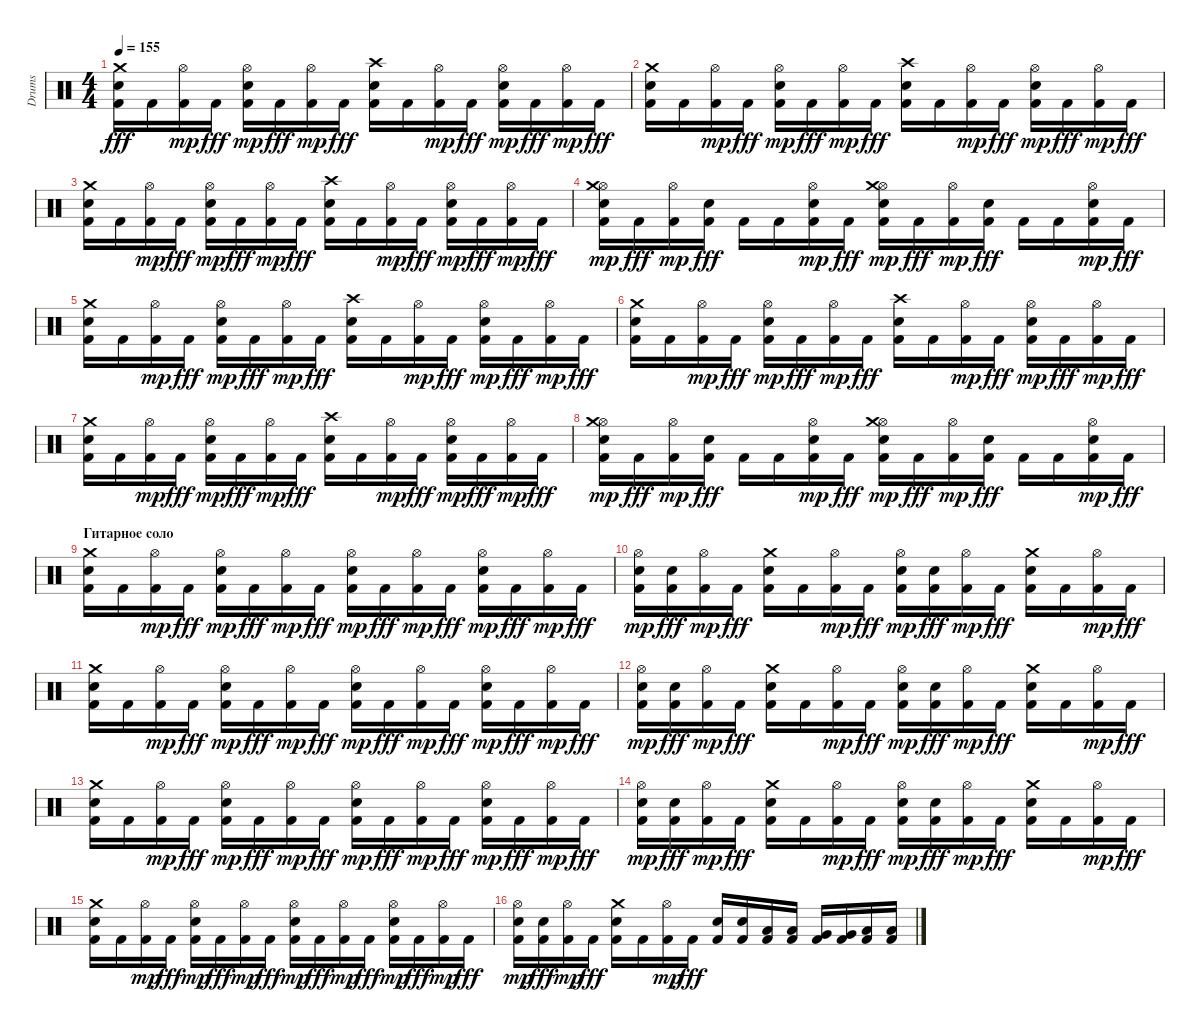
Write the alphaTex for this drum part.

\track ("Drums" "Drums") {instrument percussion}
\staff {score}
\articulation defaults
\ts (4 4)
\tempo 155
\clef neutral
\ks c
("Kick (hit) 2" "Snare (hit) 2" "Crash medium (hit)").16{dy fff} "Kick (hit) 2".16 ("Kick (hit) 2" "Hi-Hat (open)").16{dy mp} "Kick (hit) 2".16{dy fff} ("Kick (hit) 2" "Hi-Hat (open)" "Snare (hit) 2").16{dy mp} "Kick (hit) 2".16{dy fff} ("Kick (hit) 2" "Hi-Hat (open)").16{dy mp} "Kick (hit) 2".16{dy fff} ("Kick (hit) 2" "Snare (hit) 2" "Crash high (hit)").16 "Kick (hit) 2".16 ("Kick (hit) 2" "Hi-Hat (open)").16{dy mp} "Kick (hit) 2".16{dy fff} ("Kick (hit) 2" "Hi-Hat (open)" "Snare (hit) 2").16{dy mp} "Kick (hit) 2".16{dy fff} ("Kick (hit) 2" "Hi-Hat (open)").16{dy mp} "Kick (hit) 2".16{dy fff} |
("Kick (hit) 2" "Snare (hit) 2" "Crash medium (hit)").16 "Kick (hit) 2".16 ("Kick (hit) 2" "Hi-Hat (open)").16{dy mp} "Kick (hit) 2".16{dy fff} ("Kick (hit) 2" "Hi-Hat (open)" "Snare (hit) 2").16{dy mp} "Kick (hit) 2".16{dy fff} ("Kick (hit) 2" "Hi-Hat (open)").16{dy mp} "Kick (hit) 2".16{dy fff} ("Kick (hit) 2" "Snare (hit) 2" "Crash high (hit)").16 "Kick (hit) 2".16 ("Kick (hit) 2" "Hi-Hat (open)").16{dy mp} "Kick (hit) 2".16{dy fff} ("Kick (hit) 2" "Hi-Hat (open)" "Snare (hit) 2").16{dy mp} "Kick (hit) 2".16{dy fff} ("Kick (hit) 2" "Hi-Hat (open)").16{dy mp} "Kick (hit) 2".16{dy fff} |
("Kick (hit) 2" "Snare (hit) 2" "Crash medium (hit)").16 "Kick (hit) 2".16 ("Kick (hit) 2" "Hi-Hat (open)").16{dy mp} "Kick (hit) 2".16{dy fff} ("Kick (hit) 2" "Hi-Hat (open)" "Snare (hit) 2").16{dy mp} "Kick (hit) 2".16{dy fff} ("Kick (hit) 2" "Hi-Hat (open)").16{dy mp} "Kick (hit) 2".16{dy fff} ("Kick (hit) 2" "Snare (hit) 2" "Crash high (hit)").16 "Kick (hit) 2".16 ("Kick (hit) 2" "Hi-Hat (open)").16{dy mp} "Kick (hit) 2".16{dy fff} ("Kick (hit) 2" "Hi-Hat (open)" "Snare (hit) 2").16{dy mp} "Kick (hit) 2".16{dy fff} ("Kick (hit) 2" "Hi-Hat (open)").16{dy mp} "Kick (hit) 2".16{dy fff} |
("Kick (hit) 2" "Hi-Hat (open)" "Snare (hit) 2" "Crash medium (hit)").16{dy mp} "Kick (hit) 2".16{dy fff} ("Kick (hit) 2" "Hi-Hat (open)").16{dy mp} ("Kick (hit) 2" "Snare (hit) 2").16{dy fff} "Kick (hit) 2".16 "Kick (hit) 2".16 ("Kick (hit) 2" "Hi-Hat (open)" "Snare (hit) 2").16{dy mp} "Kick (hit) 2".16{dy fff} ("Kick (hit) 2" "Hi-Hat (open)" "Snare (hit) 2" "Crash medium (hit)").16{dy mp} "Kick (hit) 2".16{dy fff} ("Kick (hit) 2" "Hi-Hat (open)").16{dy mp} ("Kick (hit) 2" "Snare (hit) 2").16{dy fff} "Kick (hit) 2".16 "Kick (hit) 2".16 ("Kick (hit) 2" "Hi-Hat (open)" "Snare (hit) 2").16{dy mp} "Kick (hit) 2".16{dy fff} |
("Kick (hit) 2" "Snare (hit) 2" "Crash medium (hit)").16 "Kick (hit) 2".16 ("Kick (hit) 2" "Hi-Hat (open)").16{dy mp} "Kick (hit) 2".16{dy fff} ("Kick (hit) 2" "Hi-Hat (open)" "Snare (hit) 2").16{dy mp} "Kick (hit) 2".16{dy fff} ("Kick (hit) 2" "Hi-Hat (open)").16{dy mp} "Kick (hit) 2".16{dy fff} ("Kick (hit) 2" "Snare (hit) 2" "Crash high (hit)").16 "Kick (hit) 2".16 ("Kick (hit) 2" "Hi-Hat (open)").16{dy mp} "Kick (hit) 2".16{dy fff} ("Kick (hit) 2" "Hi-Hat (open)" "Snare (hit) 2").16{dy mp} "Kick (hit) 2".16{dy fff} ("Kick (hit) 2" "Hi-Hat (open)").16{dy mp} "Kick (hit) 2".16{dy fff} |
("Kick (hit) 2" "Snare (hit) 2" "Crash medium (hit)").16 "Kick (hit) 2".16 ("Kick (hit) 2" "Hi-Hat (open)").16{dy mp} "Kick (hit) 2".16{dy fff} ("Kick (hit) 2" "Hi-Hat (open)" "Snare (hit) 2").16{dy mp} "Kick (hit) 2".16{dy fff} ("Kick (hit) 2" "Hi-Hat (open)").16{dy mp} "Kick (hit) 2".16{dy fff} ("Kick (hit) 2" "Snare (hit) 2" "Crash high (hit)").16 "Kick (hit) 2".16 ("Kick (hit) 2" "Hi-Hat (open)").16{dy mp} "Kick (hit) 2".16{dy fff} ("Kick (hit) 2" "Hi-Hat (open)" "Snare (hit) 2").16{dy mp} "Kick (hit) 2".16{dy fff} ("Kick (hit) 2" "Hi-Hat (open)").16{dy mp} "Kick (hit) 2".16{dy fff} |
("Kick (hit) 2" "Snare (hit) 2" "Crash medium (hit)").16 "Kick (hit) 2".16 ("Kick (hit) 2" "Hi-Hat (open)").16{dy mp} "Kick (hit) 2".16{dy fff} ("Kick (hit) 2" "Hi-Hat (open)" "Snare (hit) 2").16{dy mp} "Kick (hit) 2".16{dy fff} ("Kick (hit) 2" "Hi-Hat (open)").16{dy mp} "Kick (hit) 2".16{dy fff} ("Kick (hit) 2" "Snare (hit) 2" "Crash high (hit)").16 "Kick (hit) 2".16 ("Kick (hit) 2" "Hi-Hat (open)").16{dy mp} "Kick (hit) 2".16{dy fff} ("Kick (hit) 2" "Hi-Hat (open)" "Snare (hit) 2").16{dy mp} "Kick (hit) 2".16{dy fff} ("Kick (hit) 2" "Hi-Hat (open)").16{dy mp} "Kick (hit) 2".16{dy fff} |
("Kick (hit) 2" "Hi-Hat (open)" "Snare (hit) 2" "Crash medium (hit)").16{dy mp} "Kick (hit) 2".16{dy fff} ("Kick (hit) 2" "Hi-Hat (open)").16{dy mp} ("Kick (hit) 2" "Snare (hit) 2").16{dy fff} "Kick (hit) 2".16 "Kick (hit) 2".16 ("Kick (hit) 2" "Hi-Hat (open)" "Snare (hit) 2").16{dy mp} "Kick (hit) 2".16{dy fff} ("Kick (hit) 2" "Hi-Hat (open)" "Snare (hit) 2" "Crash medium (hit)").16{dy mp} "Kick (hit) 2".16{dy fff} ("Kick (hit) 2" "Hi-Hat (open)").16{dy mp} ("Kick (hit) 2" "Snare (hit) 2").16{dy fff} "Kick (hit) 2".16 "Kick (hit) 2".16 ("Kick (hit) 2" "Hi-Hat (open)" "Snare (hit) 2").16{dy mp} "Kick (hit) 2".16{dy fff} |
\section ("" "Гитарное соло")
("Kick (hit) 2" "Snare (hit) 2" "Crash medium (hit)").16 "Kick (hit) 2".16 ("Kick (hit) 2" "Hi-Hat (open)").16{dy mp} "Kick (hit) 2".16{dy fff} ("Kick (hit) 2" "Hi-Hat (open)" "Snare (hit) 2").16{dy mp} "Kick (hit) 2".16{dy fff} ("Kick (hit) 2" "Hi-Hat (open)").16{dy mp} "Kick (hit) 2".16{dy fff} ("Kick (hit) 2" "Hi-Hat (open)" "Snare (hit) 2").16{dy mp} "Kick (hit) 2".16{dy fff} ("Kick (hit) 2" "Hi-Hat (open)").16{dy mp} "Kick (hit) 2".16{dy fff} ("Kick (hit) 2" "Hi-Hat (open)" "Snare (hit) 2").16{dy mp} "Kick (hit) 2".16{dy fff} ("Kick (hit) 2" "Hi-Hat (open)").16{dy mp} "Kick (hit) 2".16{dy fff} |
("Kick (hit) 2" "Hi-Hat (open)" "Snare (hit) 2").16{dy mp} ("Kick (hit) 2" "Snare (hit) 2").16{dy fff} ("Kick (hit) 2" "Hi-Hat (open)").16{dy mp} "Kick (hit) 2".16{dy fff} ("Kick (hit) 2" "Snare (hit) 2" "Crash medium (hit)").16 "Kick (hit) 2".16 ("Kick (hit) 2" "Hi-Hat (open)").16{dy mp} "Kick (hit) 2".16{dy fff} ("Kick (hit) 2" "Hi-Hat (open)" "Snare (hit) 2").16{dy mp} ("Kick (hit) 2" "Snare (hit) 2").16{dy fff} ("Kick (hit) 2" "Hi-Hat (open)").16{dy mp} "Kick (hit) 2".16{dy fff} ("Kick (hit) 2" "Snare (hit) 2" "Crash medium (hit)").16 "Kick (hit) 2".16 ("Kick (hit) 2" "Hi-Hat (open)").16{dy mp} "Kick (hit) 2".16{dy fff} |
("Kick (hit) 2" "Snare (hit) 2" "Crash medium (hit)").16 "Kick (hit) 2".16 ("Kick (hit) 2" "Hi-Hat (open)").16{dy mp} "Kick (hit) 2".16{dy fff} ("Kick (hit) 2" "Hi-Hat (open)" "Snare (hit) 2").16{dy mp} "Kick (hit) 2".16{dy fff} ("Kick (hit) 2" "Hi-Hat (open)").16{dy mp} "Kick (hit) 2".16{dy fff} ("Kick (hit) 2" "Hi-Hat (open)" "Snare (hit) 2").16{dy mp} "Kick (hit) 2".16{dy fff} ("Kick (hit) 2" "Hi-Hat (open)").16{dy mp} "Kick (hit) 2".16{dy fff} ("Kick (hit) 2" "Hi-Hat (open)" "Snare (hit) 2").16{dy mp} "Kick (hit) 2".16{dy fff} ("Kick (hit) 2" "Hi-Hat (open)").16{dy mp} "Kick (hit) 2".16{dy fff} |
("Kick (hit) 2" "Hi-Hat (open)" "Snare (hit) 2").16{dy mp} ("Kick (hit) 2" "Snare (hit) 2").16{dy fff} ("Kick (hit) 2" "Hi-Hat (open)").16{dy mp} "Kick (hit) 2".16{dy fff} ("Kick (hit) 2" "Snare (hit) 2" "Crash medium (hit)").16 "Kick (hit) 2".16 ("Kick (hit) 2" "Hi-Hat (open)").16{dy mp} "Kick (hit) 2".16{dy fff} ("Kick (hit) 2" "Hi-Hat (open)" "Snare (hit) 2").16{dy mp} ("Kick (hit) 2" "Snare (hit) 2").16{dy fff} ("Kick (hit) 2" "Hi-Hat (open)").16{dy mp} "Kick (hit) 2".16{dy fff} ("Kick (hit) 2" "Snare (hit) 2" "Crash medium (hit)").16 "Kick (hit) 2".16 ("Kick (hit) 2" "Hi-Hat (open)").16{dy mp} "Kick (hit) 2".16{dy fff} |
("Kick (hit) 2" "Snare (hit) 2" "Crash medium (hit)").16 "Kick (hit) 2".16 ("Kick (hit) 2" "Hi-Hat (open)").16{dy mp} "Kick (hit) 2".16{dy fff} ("Kick (hit) 2" "Hi-Hat (open)" "Snare (hit) 2").16{dy mp} "Kick (hit) 2".16{dy fff} ("Kick (hit) 2" "Hi-Hat (open)").16{dy mp} "Kick (hit) 2".16{dy fff} ("Kick (hit) 2" "Hi-Hat (open)" "Snare (hit) 2").16{dy mp} "Kick (hit) 2".16{dy fff} ("Kick (hit) 2" "Hi-Hat (open)").16{dy mp} "Kick (hit) 2".16{dy fff} ("Kick (hit) 2" "Hi-Hat (open)" "Snare (hit) 2").16{dy mp} "Kick (hit) 2".16{dy fff} ("Kick (hit) 2" "Hi-Hat (open)").16{dy mp} "Kick (hit) 2".16{dy fff} |
("Kick (hit) 2" "Hi-Hat (open)" "Snare (hit) 2").16{dy mp} ("Kick (hit) 2" "Snare (hit) 2").16{dy fff} ("Kick (hit) 2" "Hi-Hat (open)").16{dy mp} "Kick (hit) 2".16{dy fff} ("Kick (hit) 2" "Snare (hit) 2" "Crash medium (hit)").16 "Kick (hit) 2".16 ("Kick (hit) 2" "Hi-Hat (open)").16{dy mp} "Kick (hit) 2".16{dy fff} ("Kick (hit) 2" "Hi-Hat (open)" "Snare (hit) 2").16{dy mp} ("Kick (hit) 2" "Snare (hit) 2").16{dy fff} ("Kick (hit) 2" "Hi-Hat (open)").16{dy mp} "Kick (hit) 2".16{dy fff} ("Kick (hit) 2" "Snare (hit) 2" "Crash medium (hit)").16 "Kick (hit) 2".16 ("Kick (hit) 2" "Hi-Hat (open)").16{dy mp} "Kick (hit) 2".16{dy fff} |
("Kick (hit) 2" "Snare (hit) 2" "Crash medium (hit)").16 "Kick (hit) 2".16 ("Kick (hit) 2" "Hi-Hat (open)").16{dy mp} "Kick (hit) 2".16{dy fff} ("Kick (hit) 2" "Hi-Hat (open)" "Snare (hit) 2").16{dy mp} "Kick (hit) 2".16{dy fff} ("Kick (hit) 2" "Hi-Hat (open)").16{dy mp} "Kick (hit) 2".16{dy fff} ("Kick (hit) 2" "Hi-Hat (open)" "Snare (hit) 2").16{dy mp} "Kick (hit) 2".16{dy fff} ("Kick (hit) 2" "Hi-Hat (open)").16{dy mp} "Kick (hit) 2".16{dy fff} ("Kick (hit) 2" "Hi-Hat (open)" "Snare (hit) 2").16{dy mp} "Kick (hit) 2".16{dy fff} ("Kick (hit) 2" "Hi-Hat (open)").16{dy mp} "Kick (hit) 2".16{dy fff} |
("Kick (hit) 2" "Hi-Hat (open)" "Snare (hit) 2").16{dy mp} ("Kick (hit) 2" "Snare (hit) 2").16{dy fff} ("Kick (hit) 2" "Hi-Hat (open)").16{dy mp} "Kick (hit) 2".16{dy fff} ("Kick (hit) 2" "Snare (hit) 2" "Crash medium (hit)").16 "Kick (hit) 2".16 ("Kick (hit) 2" "Hi-Hat (open)").16{dy mp} "Kick (hit) 2".16{dy fff} ("Kick (hit) 2" "Snare (hit) 2").16 ("Kick (hit) 2" "Snare (hit) 2").16 ("Kick (hit) 2" "Low Tom (hit)").16 ("Kick (hit) 2" "Low Tom (hit)").16 ("Kick (hit) 2" "Very Low Tom (hit)").16 ("Kick (hit) 2" "Very Low Tom (hit)").16 ("Kick (hit) 2" "Low Floor Tom (hit)").16 ("Kick (hit) 2" "Low Floor Tom (hit)").16
